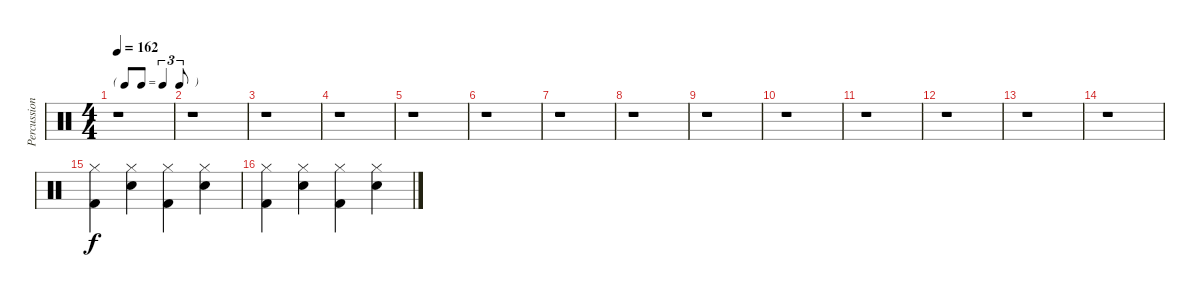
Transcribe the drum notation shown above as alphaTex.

\track ("Percussion" "Percussion") {instrument percussion}
\staff {score}
\articulation defaults
\ts (4 4)
\tf triplet8th
\tempo 162
\clef neutral
\ks c
r.1{dy f} |
r.1 |
r.1 |
r.1 |
r.1 |
r.1 |
r.1 |
r.1 |
r.1 |
r.1 |
r.1 |
r.1 |
r.1 |
r.1 |
("Kick (hit) 2" "Hi-Hat (closed)").4 ("Snare (hit) 2" "Hi-Hat (closed)").4 ("Kick (hit) 2" "Hi-Hat (closed)").4 ("Snare (hit) 2" "Hi-Hat (closed)").4 |
("Kick (hit) 2" "Hi-Hat (closed)").4 ("Snare (hit) 2" "Hi-Hat (closed)").4 ("Kick (hit) 2" "Hi-Hat (closed)").4 ("Snare (hit) 2" "Hi-Hat (closed)").4
